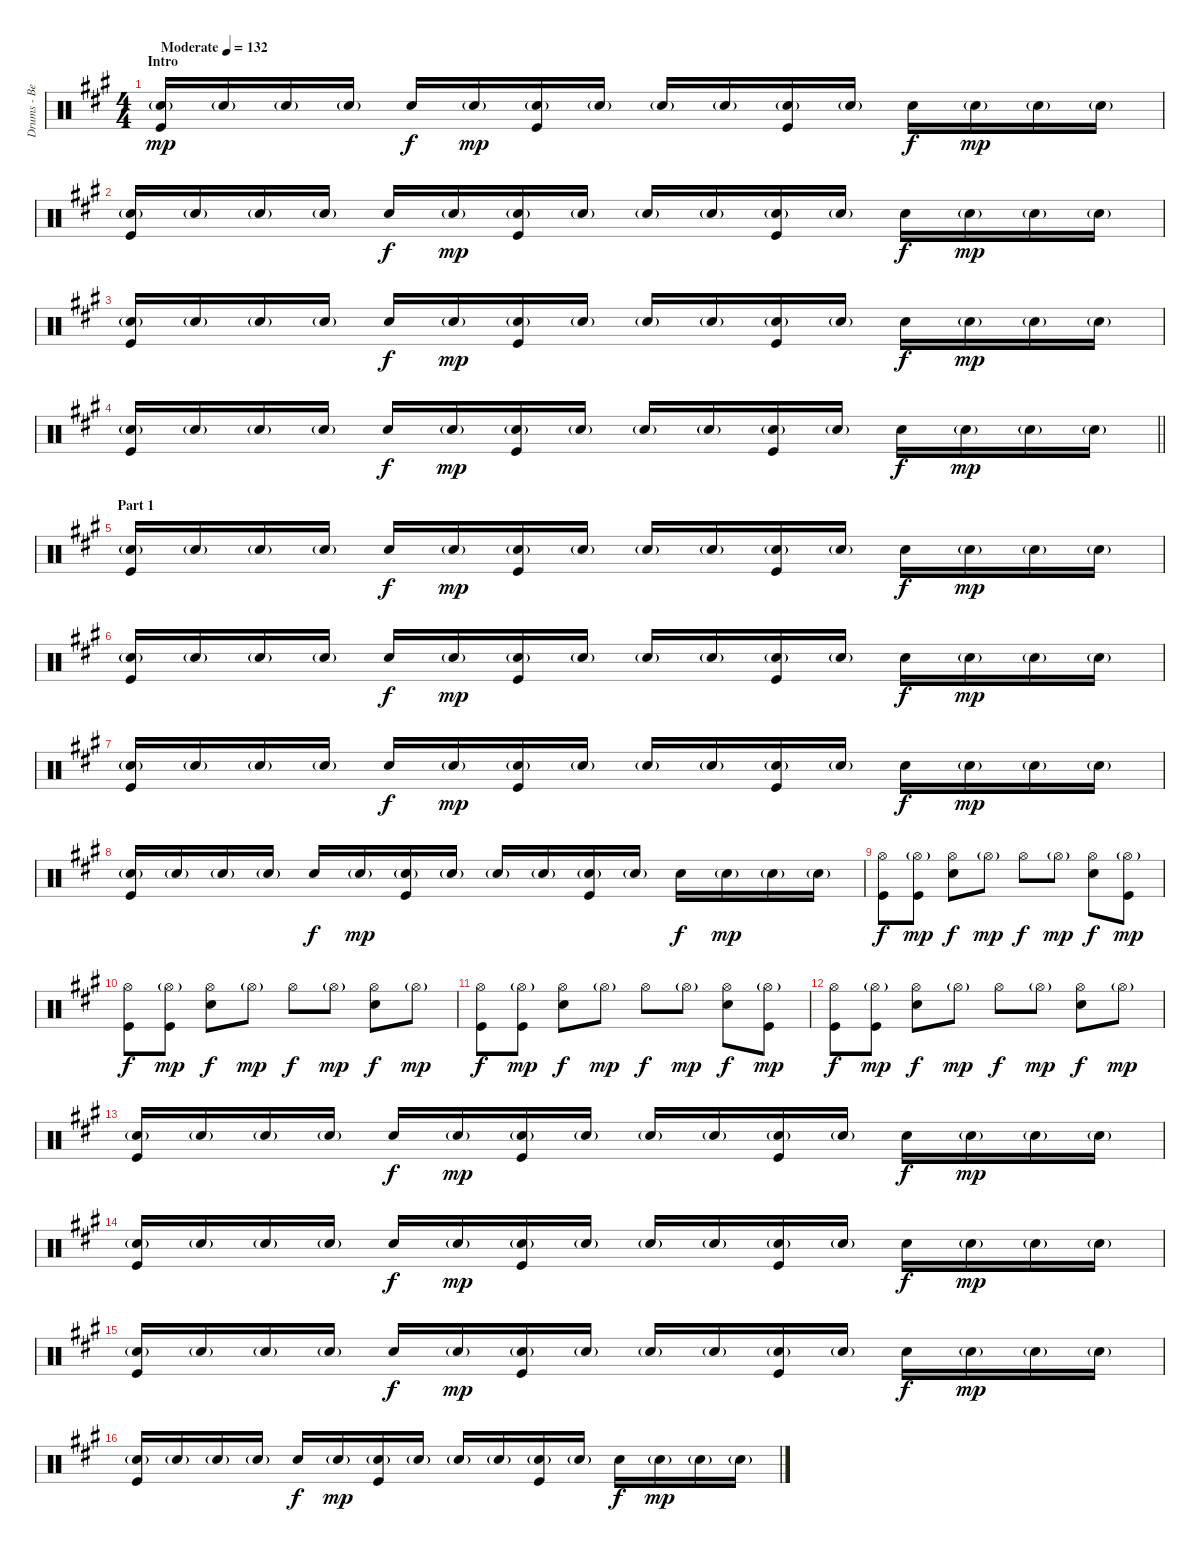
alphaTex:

\track ("Drums - Ben Johnston" "Drums - Be") {instrument percussion}
\staff {score}
\articulation defaults
\ts (4 4)
\section ("" "Intro")
\tempo (132 "Moderate")
\clef neutral
\ks a
("Snare (hit) 2"{g} "Kick (hit)").16{dy mp} "Snare (hit) 2"{g}.16 "Snare (hit) 2"{g}.16 "Snare (hit) 2"{g}.16 "Snare (hit) 2".16{dy f} "Snare (hit) 2"{g}.16{dy mp} ("Snare (hit) 2"{g} "Kick (hit)").16 "Snare (hit) 2"{g}.16 "Snare (hit) 2"{g}.16 "Snare (hit) 2"{g}.16 ("Snare (hit) 2"{g} "Kick (hit)").16 "Snare (hit) 2"{g}.16 "Snare (hit) 2".16{dy f} "Snare (hit) 2"{g}.16{dy mp} "Snare (hit) 2"{g}.16 "Snare (hit) 2"{g}.16 |
("Snare (hit) 2"{g} "Kick (hit)").16 "Snare (hit) 2"{g}.16 "Snare (hit) 2"{g}.16 "Snare (hit) 2"{g}.16 "Snare (hit) 2".16{dy f} "Snare (hit) 2"{g}.16{dy mp} ("Snare (hit) 2"{g} "Kick (hit)").16 "Snare (hit) 2"{g}.16 "Snare (hit) 2"{g}.16 "Snare (hit) 2"{g}.16 ("Snare (hit) 2"{g} "Kick (hit)").16 "Snare (hit) 2"{g}.16 "Snare (hit) 2".16{dy f} "Snare (hit) 2"{g}.16{dy mp} "Snare (hit) 2"{g}.16 "Snare (hit) 2"{g}.16 |
("Snare (hit) 2"{g} "Kick (hit)").16 "Snare (hit) 2"{g}.16 "Snare (hit) 2"{g}.16 "Snare (hit) 2"{g}.16 "Snare (hit) 2".16{dy f} "Snare (hit) 2"{g}.16{dy mp} ("Snare (hit) 2"{g} "Kick (hit)").16 "Snare (hit) 2"{g}.16 "Snare (hit) 2"{g}.16 "Snare (hit) 2"{g}.16 ("Snare (hit) 2"{g} "Kick (hit)").16 "Snare (hit) 2"{g}.16 "Snare (hit) 2".16{dy f} "Snare (hit) 2"{g}.16{dy mp} "Snare (hit) 2"{g}.16 "Snare (hit) 2"{g}.16 |
\barLineRight lightlight
("Snare (hit) 2"{g} "Kick (hit)").16 "Snare (hit) 2"{g}.16 "Snare (hit) 2"{g}.16 "Snare (hit) 2"{g}.16 "Snare (hit) 2".16{dy f} "Snare (hit) 2"{g}.16{dy mp} ("Snare (hit) 2"{g} "Kick (hit)").16 "Snare (hit) 2"{g}.16 "Snare (hit) 2"{g}.16 "Snare (hit) 2"{g}.16 ("Snare (hit) 2"{g} "Kick (hit)").16 "Snare (hit) 2"{g}.16 "Snare (hit) 2".16{dy f} "Snare (hit) 2"{g}.16{dy mp} "Snare (hit) 2"{g}.16 "Snare (hit) 2"{g}.16 |
\section ("" "Part 1")
("Snare (hit) 2"{g} "Kick (hit)").16 "Snare (hit) 2"{g}.16 "Snare (hit) 2"{g}.16 "Snare (hit) 2"{g}.16 "Snare (hit) 2".16{dy f} "Snare (hit) 2"{g}.16{dy mp} ("Snare (hit) 2"{g} "Kick (hit)").16 "Snare (hit) 2"{g}.16 "Snare (hit) 2"{g}.16 "Snare (hit) 2"{g}.16 ("Snare (hit) 2"{g} "Kick (hit)").16 "Snare (hit) 2"{g}.16 "Snare (hit) 2".16{dy f} "Snare (hit) 2"{g}.16{dy mp} "Snare (hit) 2"{g}.16 "Snare (hit) 2"{g}.16 |
("Snare (hit) 2"{g} "Kick (hit)").16 "Snare (hit) 2"{g}.16 "Snare (hit) 2"{g}.16 "Snare (hit) 2"{g}.16 "Snare (hit) 2".16{dy f} "Snare (hit) 2"{g}.16{dy mp} ("Snare (hit) 2"{g} "Kick (hit)").16 "Snare (hit) 2"{g}.16 "Snare (hit) 2"{g}.16 "Snare (hit) 2"{g}.16 ("Snare (hit) 2"{g} "Kick (hit)").16 "Snare (hit) 2"{g}.16 "Snare (hit) 2".16{dy f} "Snare (hit) 2"{g}.16{dy mp} "Snare (hit) 2"{g}.16 "Snare (hit) 2"{g}.16 |
("Snare (hit) 2"{g} "Kick (hit)").16 "Snare (hit) 2"{g}.16 "Snare (hit) 2"{g}.16 "Snare (hit) 2"{g}.16 "Snare (hit) 2".16{dy f} "Snare (hit) 2"{g}.16{dy mp} ("Snare (hit) 2"{g} "Kick (hit)").16 "Snare (hit) 2"{g}.16 "Snare (hit) 2"{g}.16 "Snare (hit) 2"{g}.16 ("Snare (hit) 2"{g} "Kick (hit)").16 "Snare (hit) 2"{g}.16 "Snare (hit) 2".16{dy f} "Snare (hit) 2"{g}.16{dy mp} "Snare (hit) 2"{g}.16 "Snare (hit) 2"{g}.16 |
("Snare (hit) 2"{g} "Kick (hit)").16 "Snare (hit) 2"{g}.16 "Snare (hit) 2"{g}.16 "Snare (hit) 2"{g}.16 "Snare (hit) 2".16{dy f} "Snare (hit) 2"{g}.16{dy mp} ("Snare (hit) 2"{g} "Kick (hit)").16 "Snare (hit) 2"{g}.16 "Snare (hit) 2"{g}.16 "Snare (hit) 2"{g}.16 ("Snare (hit) 2"{g} "Kick (hit)").16 "Snare (hit) 2"{g}.16 "Snare (hit) 2".16{dy f} "Snare (hit) 2"{g}.16{dy mp} "Snare (hit) 2"{g}.16 "Snare (hit) 2"{g}.16 |
("Hi-Hat (open)" "Kick (hit)").8{dy f volume 13} ("Hi-Hat (open)"{g} "Kick (hit)").8{dy mp} ("Hi-Hat (open)" "Snare (hit) 2").8{dy f} "Hi-Hat (open)"{g}.8{dy mp} "Hi-Hat (open)".8{dy f} "Hi-Hat (open)"{g}.8{dy mp} ("Hi-Hat (open)" "Snare (hit) 2").8{dy f} ("Hi-Hat (open)"{g} "Kick (hit)").8{dy mp} |
("Hi-Hat (open)" "Kick (hit)").8{dy f} ("Hi-Hat (open)"{g} "Kick (hit)").8{dy mp} ("Hi-Hat (open)" "Snare (hit) 2").8{dy f} "Hi-Hat (open)"{g}.8{dy mp} "Hi-Hat (open)".8{dy f} "Hi-Hat (open)"{g}.8{dy mp} ("Hi-Hat (open)" "Snare (hit) 2").8{dy f} "Hi-Hat (open)"{g}.8{dy mp} |
("Hi-Hat (open)" "Kick (hit)").8{dy f} ("Hi-Hat (open)"{g} "Kick (hit)").8{dy mp} ("Hi-Hat (open)" "Snare (hit) 2").8{dy f} "Hi-Hat (open)"{g}.8{dy mp} "Hi-Hat (open)".8{dy f} "Hi-Hat (open)"{g}.8{dy mp} ("Hi-Hat (open)" "Snare (hit) 2").8{dy f} ("Hi-Hat (open)"{g} "Kick (hit)").8{dy mp} |
("Hi-Hat (open)" "Kick (hit)").8{dy f} ("Hi-Hat (open)"{g} "Kick (hit)").8{dy mp} ("Hi-Hat (open)" "Snare (hit) 2").8{dy f} "Hi-Hat (open)"{g}.8{dy mp} "Hi-Hat (open)".8{dy f} "Hi-Hat (open)"{g}.8{dy mp} ("Hi-Hat (open)" "Snare (hit) 2").8{dy f} "Hi-Hat (open)"{g}.8{dy mp} |
("Snare (hit) 2"{g} "Kick (hit)").16 "Snare (hit) 2"{g}.16 "Snare (hit) 2"{g}.16 "Snare (hit) 2"{g}.16 "Snare (hit) 2".16{dy f} "Snare (hit) 2"{g}.16{dy mp} ("Snare (hit) 2"{g} "Kick (hit)").16 "Snare (hit) 2"{g}.16 "Snare (hit) 2"{g}.16 "Snare (hit) 2"{g}.16 ("Snare (hit) 2"{g} "Kick (hit)").16 "Snare (hit) 2"{g}.16 "Snare (hit) 2".16{dy f} "Snare (hit) 2"{g}.16{dy mp} "Snare (hit) 2"{g}.16 "Snare (hit) 2"{g}.16 |
("Snare (hit) 2"{g} "Kick (hit)").16 "Snare (hit) 2"{g}.16 "Snare (hit) 2"{g}.16 "Snare (hit) 2"{g}.16 "Snare (hit) 2".16{dy f} "Snare (hit) 2"{g}.16{dy mp} ("Snare (hit) 2"{g} "Kick (hit)").16 "Snare (hit) 2"{g}.16 "Snare (hit) 2"{g}.16 "Snare (hit) 2"{g}.16 ("Snare (hit) 2"{g} "Kick (hit)").16 "Snare (hit) 2"{g}.16 "Snare (hit) 2".16{dy f} "Snare (hit) 2"{g}.16{dy mp} "Snare (hit) 2"{g}.16 "Snare (hit) 2"{g}.16 |
("Snare (hit) 2"{g} "Kick (hit)").16 "Snare (hit) 2"{g}.16 "Snare (hit) 2"{g}.16 "Snare (hit) 2"{g}.16 "Snare (hit) 2".16{dy f} "Snare (hit) 2"{g}.16{dy mp} ("Snare (hit) 2"{g} "Kick (hit)").16 "Snare (hit) 2"{g}.16 "Snare (hit) 2"{g}.16 "Snare (hit) 2"{g}.16 ("Snare (hit) 2"{g} "Kick (hit)").16 "Snare (hit) 2"{g}.16 "Snare (hit) 2".16{dy f} "Snare (hit) 2"{g}.16{dy mp} "Snare (hit) 2"{g}.16 "Snare (hit) 2"{g}.16 |
("Snare (hit) 2"{g} "Kick (hit)").16 "Snare (hit) 2"{g}.16 "Snare (hit) 2"{g}.16 "Snare (hit) 2"{g}.16 "Snare (hit) 2".16{dy f} "Snare (hit) 2"{g}.16{dy mp} ("Snare (hit) 2"{g} "Kick (hit)").16 "Snare (hit) 2"{g}.16 "Snare (hit) 2"{g}.16 "Snare (hit) 2"{g}.16 ("Snare (hit) 2"{g} "Kick (hit)").16 "Snare (hit) 2"{g}.16 "Snare (hit) 2".16{dy f} "Snare (hit) 2"{g}.16{dy mp} "Snare (hit) 2"{g}.16 "Snare (hit) 2"{g}.16
